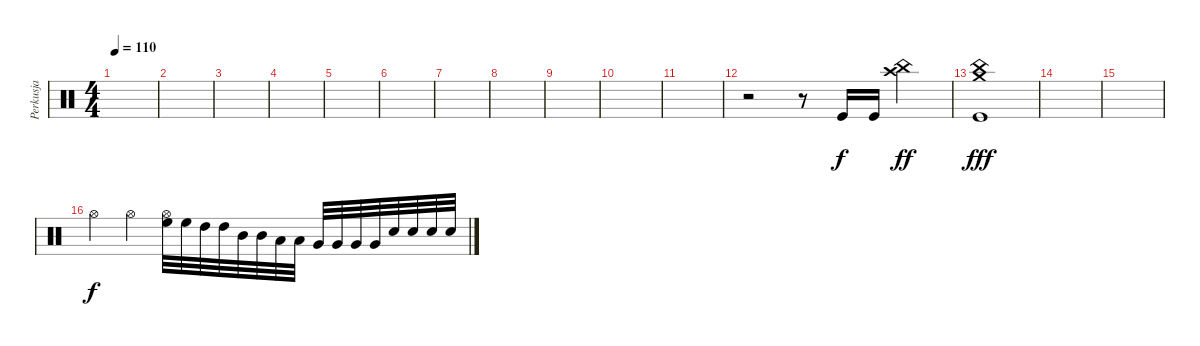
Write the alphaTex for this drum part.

\track ("Perkusja" "Perkusja") {instrument percussion}
\staff {score}
\articulation defaults
\ts (4 4)
\tempo 110
\clef neutral
\ks c
|
|
|
|
|
|
|
|
|
|
|
r.2 r.8 "Kick (hit)".16 "Kick (hit)".16 ("China (hit)" "Crash high (hit)").4{dy ff} |
("Crash medium (hit)" "China (hit)" "Kick (hit)").1{dy fff} |
|
|
"Hi-Hat (open)".4{dy f} "Hi-Hat (open)".4 ("Hi-Hat (open)" "High Floor Tom (hit)").32 "High Floor Tom (hit)".32 "High Tom (hit)".32 "High Tom (hit)".32 "Mid Tom (hit)".32 "Mid Tom (hit)".32 "Low Tom (hit)".32 "Low Tom (hit)".32 "Very Low Tom (hit)".32 "Very Low Tom (hit)".32 "Very Low Tom (hit)".32 "Very Low Tom (hit)".32 "Snare (hit) 2".32 "Snare (hit) 2".32 "Snare (hit) 2".32 "Snare (hit) 2".32
